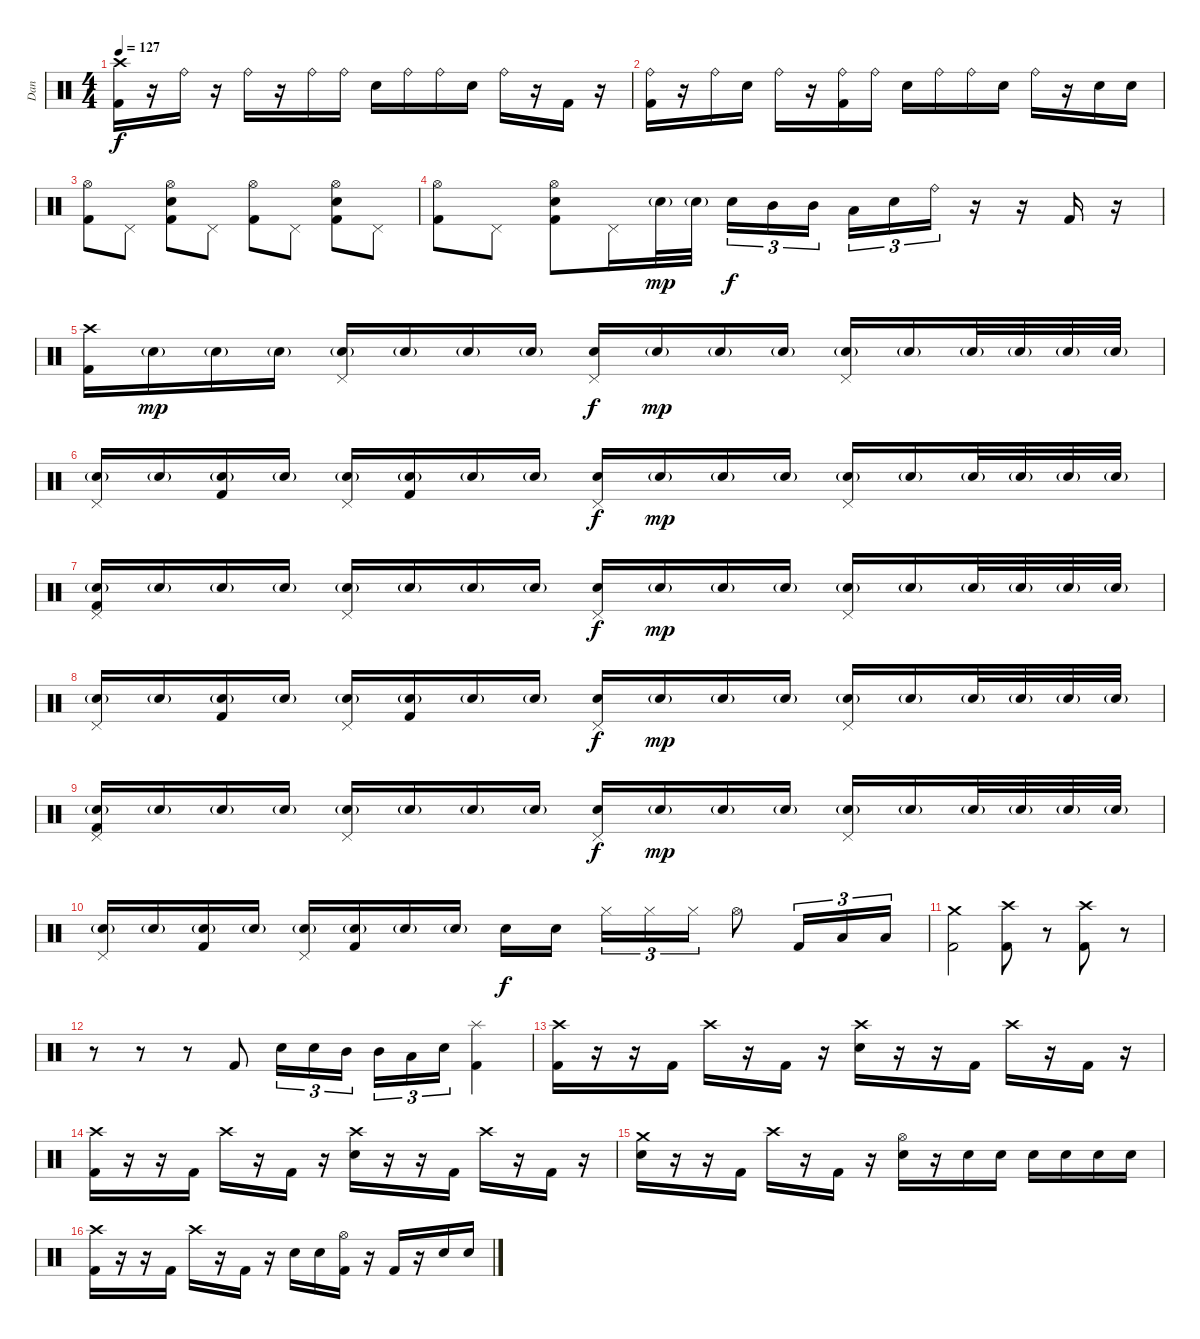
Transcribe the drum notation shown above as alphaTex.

\track ("Dan" "Dan") {instrument percussion}
\staff {score}
\articulation defaults
\ts (4 4)
\tempo 127
\clef neutral
\ks c
("Crash high (hit)" "Kick (hit) 2").16{dy f} r.16 "Ride (bell)".16 r.16 "Ride (bell)".16 r.16 "Ride (bell)".16 "Ride (bell)".16 "Electric Snare (hit)".16 "Ride (bell)".16 "Ride (bell)".16 "Electric Snare (hit)".16 "Ride (bell)".16 r.16 "Kick (hit) 2".16 r.16 |
("Ride (bell)" "Kick (hit) 2").16 r.16 "Ride (bell)".16 "Electric Snare (hit)".16 "Ride (bell)".16 r.16 ("Ride (bell)" "Kick (hit) 2").16 "Ride (bell)".16 "Electric Snare (hit)".16 "Ride (bell)".16 "Ride (bell)".16 "Electric Snare (hit)".16 "Ride (bell)".16 r.16 "Electric Snare (hit)".16 "Electric Snare (hit)".16 |
("Hi-Hat (open)" "Kick (hit) 2").8 "Pedal Hi-Hat (hit)".8 ("Hi-Hat (open)" "Electric Snare (hit)" "Kick (hit) 2").8 "Pedal Hi-Hat (hit)".8 ("Hi-Hat (open)" "Kick (hit) 2").8 "Pedal Hi-Hat (hit)".8 ("Hi-Hat (open)" "Electric Snare (hit)" "Kick (hit) 2").8 "Pedal Hi-Hat (hit)".8 |
("Hi-Hat (open)" "Kick (hit) 2").8 "Pedal Hi-Hat (hit)".8 ("Hi-Hat (open)" "Electric Snare (hit)" "Kick (hit) 2").8 "Pedal Hi-Hat (hit)".16 "Electric Snare (hit)"{g}.32{dy mp} "Electric Snare (hit)"{g}.32 "Electric Snare (hit)".16{tu (3 2) dy f} "Mid Tom (hit)".16{tu (3 2)} "Mid Tom (hit)".16{tu (3 2) beam splitsecondary} "Low Tom (hit)".16{tu (3 2)} "Electric Snare (hit)".16{tu (3 2)} "Ride (bell)".16{tu (3 2)} r.16 r.16 "Kick (hit) 2".16 r.16 |
("Crash high (hit)" "Kick (hit) 2").16 "Electric Snare (hit)"{g}.16{dy mp} "Electric Snare (hit)"{g}.16 "Electric Snare (hit)"{g}.16 ("Pedal Hi-Hat (hit)" "Electric Snare (hit)"{g}).16 "Electric Snare (hit)"{g}.16 "Electric Snare (hit)"{g}.16 "Electric Snare (hit)"{g}.16 ("Pedal Hi-Hat (hit)" "Electric Snare (hit)").16{dy f} "Electric Snare (hit)"{g}.16{dy mp} "Electric Snare (hit)"{g}.16 "Electric Snare (hit)"{g}.16 ("Pedal Hi-Hat (hit)" "Electric Snare (hit)"{g}).16 "Electric Snare (hit)"{g}.16 "Electric Snare (hit)"{g}.32 "Electric Snare (hit)"{g}.32 "Electric Snare (hit)"{g}.32 "Electric Snare (hit)"{g}.32 |
("Pedal Hi-Hat (hit)" "Electric Snare (hit)"{g}).16 "Electric Snare (hit)"{g}.16 ("Electric Snare (hit)"{g} "Kick (hit) 2").16 "Electric Snare (hit)"{g}.16 ("Pedal Hi-Hat (hit)" "Electric Snare (hit)"{g}).16 ("Electric Snare (hit)"{g} "Kick (hit) 2").16 "Electric Snare (hit)"{g}.16 "Electric Snare (hit)"{g}.16 ("Pedal Hi-Hat (hit)" "Electric Snare (hit)").16{dy f} "Electric Snare (hit)"{g}.16{dy mp} "Electric Snare (hit)"{g}.16 "Electric Snare (hit)"{g}.16 ("Pedal Hi-Hat (hit)" "Electric Snare (hit)"{g}).16 "Electric Snare (hit)"{g}.16 "Electric Snare (hit)"{g}.32 "Electric Snare (hit)"{g}.32 "Electric Snare (hit)"{g}.32 "Electric Snare (hit)"{g}.32 |
("Pedal Hi-Hat (hit)" "Electric Snare (hit)"{g} "Kick (hit) 2").16 "Electric Snare (hit)"{g}.16 "Electric Snare (hit)"{g}.16 "Electric Snare (hit)"{g}.16 ("Pedal Hi-Hat (hit)" "Electric Snare (hit)"{g}).16 "Electric Snare (hit)"{g}.16 "Electric Snare (hit)"{g}.16 "Electric Snare (hit)"{g}.16 ("Pedal Hi-Hat (hit)" "Electric Snare (hit)").16{dy f} "Electric Snare (hit)"{g}.16{dy mp} "Electric Snare (hit)"{g}.16 "Electric Snare (hit)"{g}.16 ("Pedal Hi-Hat (hit)" "Electric Snare (hit)"{g}).16 "Electric Snare (hit)"{g}.16 "Electric Snare (hit)"{g}.32 "Electric Snare (hit)"{g}.32 "Electric Snare (hit)"{g}.32 "Electric Snare (hit)"{g}.32 |
("Pedal Hi-Hat (hit)" "Electric Snare (hit)"{g}).16 "Electric Snare (hit)"{g}.16 ("Electric Snare (hit)"{g} "Kick (hit) 2").16 "Electric Snare (hit)"{g}.16 ("Pedal Hi-Hat (hit)" "Electric Snare (hit)"{g}).16 ("Electric Snare (hit)"{g} "Kick (hit) 2").16 "Electric Snare (hit)"{g}.16 "Electric Snare (hit)"{g}.16 ("Pedal Hi-Hat (hit)" "Electric Snare (hit)").16{dy f} "Electric Snare (hit)"{g}.16{dy mp} "Electric Snare (hit)"{g}.16 "Electric Snare (hit)"{g}.16 ("Pedal Hi-Hat (hit)" "Electric Snare (hit)"{g}).16 "Electric Snare (hit)"{g}.16 "Electric Snare (hit)"{g}.32 "Electric Snare (hit)"{g}.32 "Electric Snare (hit)"{g}.32 "Electric Snare (hit)"{g}.32 |
("Pedal Hi-Hat (hit)" "Electric Snare (hit)"{g} "Kick (hit) 2").16 "Electric Snare (hit)"{g}.16 "Electric Snare (hit)"{g}.16 "Electric Snare (hit)"{g}.16 ("Pedal Hi-Hat (hit)" "Electric Snare (hit)"{g}).16 "Electric Snare (hit)"{g}.16 "Electric Snare (hit)"{g}.16 "Electric Snare (hit)"{g}.16 ("Pedal Hi-Hat (hit)" "Electric Snare (hit)").16{dy f} "Electric Snare (hit)"{g}.16{dy mp} "Electric Snare (hit)"{g}.16 "Electric Snare (hit)"{g}.16 ("Pedal Hi-Hat (hit)" "Electric Snare (hit)"{g}).16 "Electric Snare (hit)"{g}.16 "Electric Snare (hit)"{g}.32 "Electric Snare (hit)"{g}.32 "Electric Snare (hit)"{g}.32 "Electric Snare (hit)"{g}.32 |
("Pedal Hi-Hat (hit)" "Electric Snare (hit)"{g}).16 "Electric Snare (hit)"{g}.16 ("Electric Snare (hit)"{g} "Kick (hit) 2").16 "Electric Snare (hit)"{g}.16 ("Pedal Hi-Hat (hit)" "Electric Snare (hit)"{g}).16 ("Electric Snare (hit)"{g} "Kick (hit) 2").16 "Electric Snare (hit)"{g}.16 "Electric Snare (hit)"{g}.16 "Electric Snare (hit)".16{dy f} "Electric Snare (hit)".16{beam splitsecondary} "Hi-Hat (closed)".16{tu (3 2)} "Hi-Hat (closed)".16{tu (3 2)} "Hi-Hat (closed)".16{tu (3 2)} "Hi-Hat (open)".8 "Kick (hit) 2".16{tu (3 2)} "Low Tom (hit)".16{tu (3 2)} "Low Tom (hit)".16{tu (3 2)} |
("Crash medium (hit)" "Kick (hit) 2").2 ("Crash high (hit)" "Kick (hit) 2").8 r.8 ("Crash high (hit)" "Kick (hit) 2").8 r.8 |
r.8 r.8 r.8 "Kick (hit) 2".8 "Electric Snare (hit)".16{tu (3 2)} "Electric Snare (hit)".16{tu (3 2)} "Mid Tom (hit)".16{tu (3 2) beam splitsecondary} "Mid Tom (hit)".16{tu (3 2)} "Low Tom (hit)".16{tu (3 2)} "Electric Snare (hit)".16{tu (3 2)} ("Splash (hit)" "Kick (hit) 2").4 |
("Crash high (hit)" "Kick (hit) 2").16 r.16 r.16 "Kick (hit) 2".16 "Crash high (hit)".16 r.16 "Kick (hit) 2".16 r.16 ("Crash high (hit)" "Electric Snare (hit)").16 r.16 r.16 "Kick (hit) 2".16 "Crash high (hit)".16 r.16 "Kick (hit) 2".16 r.16 |
("Crash high (hit)" "Kick (hit) 2").16 r.16 r.16 "Kick (hit) 2".16 "Crash high (hit)".16 r.16 "Kick (hit) 2".16 r.16 ("Crash high (hit)" "Electric Snare (hit)").16 r.16 r.16 "Kick (hit) 2".16 "Crash high (hit)".16 r.16 "Kick (hit) 2".16 r.16 |
("Crash medium (hit)" "Electric Snare (hit)").16 r.16 r.16 "Kick (hit) 2".16 "Crash high (hit)".16 r.16 "Kick (hit) 2".16 r.16 ("Hi-Hat (open)" "Electric Snare (hit)").16 r.16 "Electric Snare (hit)".16 "Electric Snare (hit)".16 "Electric Snare (hit)".16 "Electric Snare (hit)".16 "Electric Snare (hit)".16 "Electric Snare (hit)".16 |
("Crash high (hit)" "Kick (hit) 2").16 r.16 r.16 "Kick (hit) 2".16 "Crash high (hit)".16 r.16 "Kick (hit) 2".16 r.16 "Electric Snare (hit)".16 "Electric Snare (hit)".16 ("Hi-Hat (open)" "Kick (hit) 2").16 r.16 "Kick (hit) 2".16 r.16 "Electric Snare (hit)".16 "Electric Snare (hit)".16
